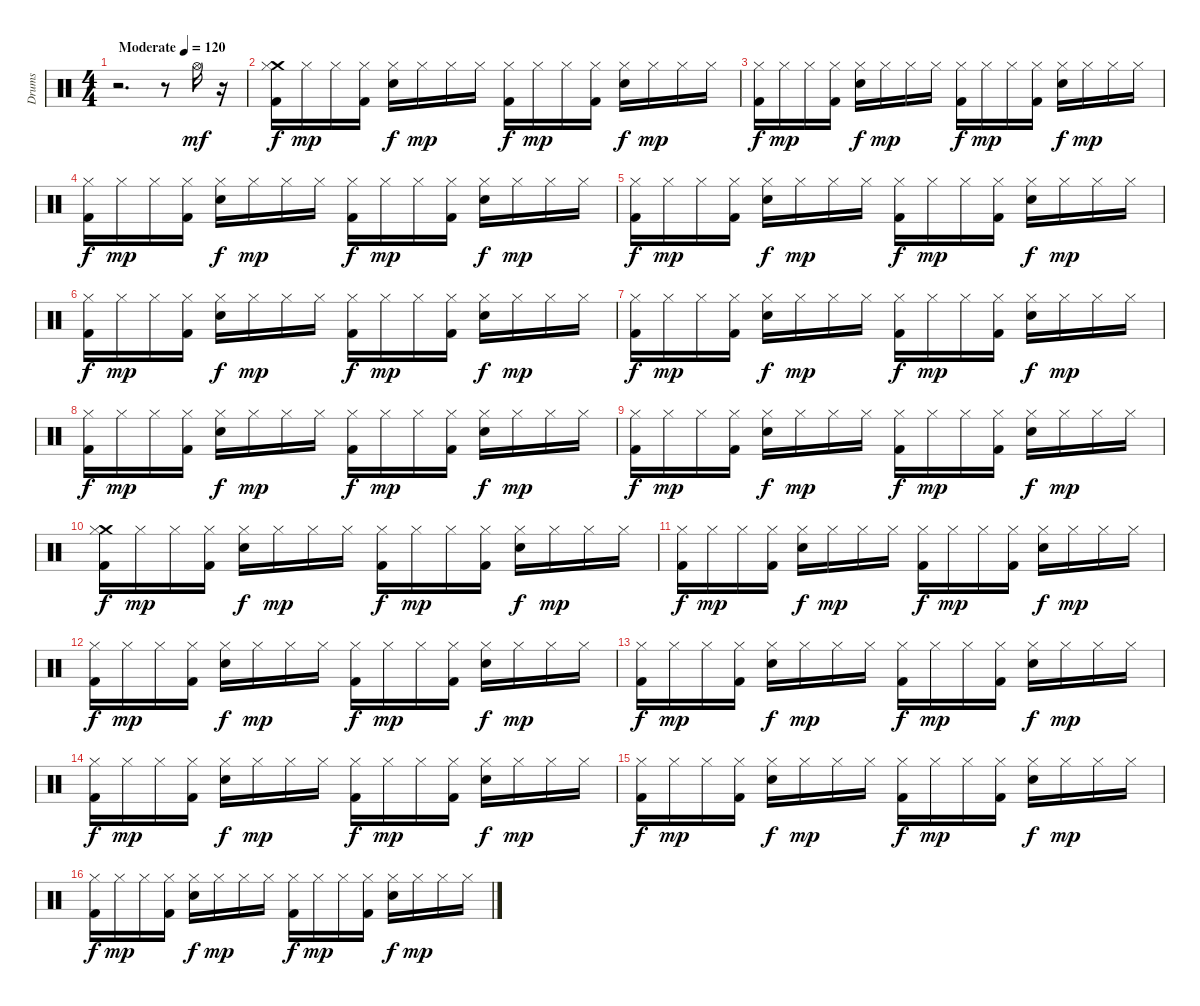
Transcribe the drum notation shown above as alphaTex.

\track ("Drums" "Drums") {instrument percussion}
\staff {score}
\articulation defaults
\ts (4 4)
\tempo (120 "Moderate")
\clef neutral
\ks c
r.2{d dy mf} r.8 "Hi-Hat (open)".16 r.16 |
("Kick (hit) 2" "Crash medium (hit)" "Hi-Hat (closed)").16{dy f} "Hi-Hat (closed)".16{dy mp} "Hi-Hat (closed)".16 ("Kick (hit) 2" "Hi-Hat (closed)").16 ("Snare (hit) 2" "Hi-Hat (closed)").16{dy f} "Hi-Hat (closed)".16{dy mp} "Hi-Hat (closed)".16 "Hi-Hat (closed)".16 ("Kick (hit) 2" "Hi-Hat (closed)").16{dy f} "Hi-Hat (closed)".16{dy mp} "Hi-Hat (closed)".16 ("Kick (hit) 2" "Hi-Hat (closed)").16 ("Snare (hit) 2" "Hi-Hat (closed)").16{dy f} "Hi-Hat (closed)".16{dy mp} "Hi-Hat (closed)".16 "Hi-Hat (closed)".16 |
("Kick (hit) 2" "Hi-Hat (closed)").16{dy f} "Hi-Hat (closed)".16{dy mp} "Hi-Hat (closed)".16 ("Kick (hit) 2" "Hi-Hat (closed)").16 ("Snare (hit) 2" "Hi-Hat (closed)").16{dy f} "Hi-Hat (closed)".16{dy mp} "Hi-Hat (closed)".16 "Hi-Hat (closed)".16 ("Kick (hit) 2" "Hi-Hat (closed)").16{dy f} "Hi-Hat (closed)".16{dy mp} "Hi-Hat (closed)".16 ("Kick (hit) 2" "Hi-Hat (closed)").16 ("Snare (hit) 2" "Hi-Hat (closed)").16{dy f} "Hi-Hat (closed)".16{dy mp} "Hi-Hat (closed)".16 "Hi-Hat (closed)".16 |
("Kick (hit) 2" "Hi-Hat (closed)").16{dy f} "Hi-Hat (closed)".16{dy mp} "Hi-Hat (closed)".16 ("Kick (hit) 2" "Hi-Hat (closed)").16 ("Snare (hit) 2" "Hi-Hat (closed)").16{dy f} "Hi-Hat (closed)".16{dy mp} "Hi-Hat (closed)".16 "Hi-Hat (closed)".16 ("Kick (hit) 2" "Hi-Hat (closed)").16{dy f} "Hi-Hat (closed)".16{dy mp} "Hi-Hat (closed)".16 ("Kick (hit) 2" "Hi-Hat (closed)").16 ("Snare (hit) 2" "Hi-Hat (closed)").16{dy f} "Hi-Hat (closed)".16{dy mp} "Hi-Hat (closed)".16 "Hi-Hat (closed)".16 |
("Kick (hit) 2" "Hi-Hat (closed)").16{dy f} "Hi-Hat (closed)".16{dy mp} "Hi-Hat (closed)".16 ("Kick (hit) 2" "Hi-Hat (closed)").16 ("Snare (hit) 2" "Hi-Hat (closed)").16{dy f} "Hi-Hat (closed)".16{dy mp} "Hi-Hat (closed)".16 "Hi-Hat (closed)".16 ("Kick (hit) 2" "Hi-Hat (closed)").16{dy f} "Hi-Hat (closed)".16{dy mp} "Hi-Hat (closed)".16 ("Kick (hit) 2" "Hi-Hat (closed)").16 ("Snare (hit) 2" "Hi-Hat (closed)").16{dy f} "Hi-Hat (closed)".16{dy mp} "Hi-Hat (closed)".16 "Hi-Hat (closed)".16 |
("Kick (hit) 2" "Hi-Hat (closed)").16{dy f} "Hi-Hat (closed)".16{dy mp} "Hi-Hat (closed)".16 ("Kick (hit) 2" "Hi-Hat (closed)").16 ("Snare (hit) 2" "Hi-Hat (closed)").16{dy f} "Hi-Hat (closed)".16{dy mp} "Hi-Hat (closed)".16 "Hi-Hat (closed)".16 ("Kick (hit) 2" "Hi-Hat (closed)").16{dy f} "Hi-Hat (closed)".16{dy mp} "Hi-Hat (closed)".16 ("Kick (hit) 2" "Hi-Hat (closed)").16 ("Snare (hit) 2" "Hi-Hat (closed)").16{dy f} "Hi-Hat (closed)".16{dy mp} "Hi-Hat (closed)".16 "Hi-Hat (closed)".16 |
("Kick (hit) 2" "Hi-Hat (closed)").16{dy f} "Hi-Hat (closed)".16{dy mp} "Hi-Hat (closed)".16 ("Kick (hit) 2" "Hi-Hat (closed)").16 ("Snare (hit) 2" "Hi-Hat (closed)").16{dy f} "Hi-Hat (closed)".16{dy mp} "Hi-Hat (closed)".16 "Hi-Hat (closed)".16 ("Kick (hit) 2" "Hi-Hat (closed)").16{dy f} "Hi-Hat (closed)".16{dy mp} "Hi-Hat (closed)".16 ("Kick (hit) 2" "Hi-Hat (closed)").16 ("Snare (hit) 2" "Hi-Hat (closed)").16{dy f} "Hi-Hat (closed)".16{dy mp} "Hi-Hat (closed)".16 "Hi-Hat (closed)".16 |
("Kick (hit) 2" "Hi-Hat (closed)").16{dy f} "Hi-Hat (closed)".16{dy mp} "Hi-Hat (closed)".16 ("Kick (hit) 2" "Hi-Hat (closed)").16 ("Snare (hit) 2" "Hi-Hat (closed)").16{dy f} "Hi-Hat (closed)".16{dy mp} "Hi-Hat (closed)".16 "Hi-Hat (closed)".16 ("Kick (hit) 2" "Hi-Hat (closed)").16{dy f} "Hi-Hat (closed)".16{dy mp} "Hi-Hat (closed)".16 ("Kick (hit) 2" "Hi-Hat (closed)").16 ("Snare (hit) 2" "Hi-Hat (closed)").16{dy f} "Hi-Hat (closed)".16{dy mp} "Hi-Hat (closed)".16 "Hi-Hat (closed)".16 |
("Kick (hit) 2" "Hi-Hat (closed)").16{dy f} "Hi-Hat (closed)".16{dy mp} "Hi-Hat (closed)".16 ("Kick (hit) 2" "Hi-Hat (closed)").16 ("Snare (hit) 2" "Hi-Hat (closed)").16{dy f} "Hi-Hat (closed)".16{dy mp} "Hi-Hat (closed)".16 "Hi-Hat (closed)".16 ("Kick (hit) 2" "Hi-Hat (closed)").16{dy f} "Hi-Hat (closed)".16{dy mp} "Hi-Hat (closed)".16 ("Kick (hit) 2" "Hi-Hat (closed)").16 ("Snare (hit) 2" "Hi-Hat (closed)").16{dy f} "Hi-Hat (closed)".16{dy mp} "Hi-Hat (closed)".16 "Hi-Hat (closed)".16 |
("Kick (hit) 2" "Crash medium (hit)" "Hi-Hat (closed)").16{dy f} "Hi-Hat (closed)".16{dy mp} "Hi-Hat (closed)".16 ("Kick (hit) 2" "Hi-Hat (closed)").16 ("Snare (hit) 2" "Hi-Hat (closed)").16{dy f} "Hi-Hat (closed)".16{dy mp} "Hi-Hat (closed)".16 "Hi-Hat (closed)".16 ("Kick (hit) 2" "Hi-Hat (closed)").16{dy f} "Hi-Hat (closed)".16{dy mp} "Hi-Hat (closed)".16 ("Kick (hit) 2" "Hi-Hat (closed)").16 ("Snare (hit) 2" "Hi-Hat (closed)").16{dy f} "Hi-Hat (closed)".16{dy mp} "Hi-Hat (closed)".16 "Hi-Hat (closed)".16 |
("Kick (hit) 2" "Hi-Hat (closed)").16{dy f} "Hi-Hat (closed)".16{dy mp} "Hi-Hat (closed)".16 ("Kick (hit) 2" "Hi-Hat (closed)").16 ("Snare (hit) 2" "Hi-Hat (closed)").16{dy f} "Hi-Hat (closed)".16{dy mp} "Hi-Hat (closed)".16 "Hi-Hat (closed)".16 ("Kick (hit) 2" "Hi-Hat (closed)").16{dy f} "Hi-Hat (closed)".16{dy mp} "Hi-Hat (closed)".16 ("Kick (hit) 2" "Hi-Hat (closed)").16 ("Snare (hit) 2" "Hi-Hat (closed)").16{dy f} "Hi-Hat (closed)".16{dy mp} "Hi-Hat (closed)".16 "Hi-Hat (closed)".16 |
("Kick (hit) 2" "Hi-Hat (closed)").16{dy f} "Hi-Hat (closed)".16{dy mp} "Hi-Hat (closed)".16 ("Kick (hit) 2" "Hi-Hat (closed)").16 ("Snare (hit) 2" "Hi-Hat (closed)").16{dy f} "Hi-Hat (closed)".16{dy mp} "Hi-Hat (closed)".16 "Hi-Hat (closed)".16 ("Kick (hit) 2" "Hi-Hat (closed)").16{dy f} "Hi-Hat (closed)".16{dy mp} "Hi-Hat (closed)".16 ("Kick (hit) 2" "Hi-Hat (closed)").16 ("Snare (hit) 2" "Hi-Hat (closed)").16{dy f} "Hi-Hat (closed)".16{dy mp} "Hi-Hat (closed)".16 "Hi-Hat (closed)".16 |
("Kick (hit) 2" "Hi-Hat (closed)").16{dy f} "Hi-Hat (closed)".16{dy mp} "Hi-Hat (closed)".16 ("Kick (hit) 2" "Hi-Hat (closed)").16 ("Snare (hit) 2" "Hi-Hat (closed)").16{dy f} "Hi-Hat (closed)".16{dy mp} "Hi-Hat (closed)".16 "Hi-Hat (closed)".16 ("Kick (hit) 2" "Hi-Hat (closed)").16{dy f} "Hi-Hat (closed)".16{dy mp} "Hi-Hat (closed)".16 ("Kick (hit) 2" "Hi-Hat (closed)").16 ("Snare (hit) 2" "Hi-Hat (closed)").16{dy f} "Hi-Hat (closed)".16{dy mp} "Hi-Hat (closed)".16 "Hi-Hat (closed)".16 |
("Kick (hit) 2" "Hi-Hat (closed)").16{dy f} "Hi-Hat (closed)".16{dy mp} "Hi-Hat (closed)".16 ("Kick (hit) 2" "Hi-Hat (closed)").16 ("Snare (hit) 2" "Hi-Hat (closed)").16{dy f} "Hi-Hat (closed)".16{dy mp} "Hi-Hat (closed)".16 "Hi-Hat (closed)".16 ("Kick (hit) 2" "Hi-Hat (closed)").16{dy f} "Hi-Hat (closed)".16{dy mp} "Hi-Hat (closed)".16 ("Kick (hit) 2" "Hi-Hat (closed)").16 ("Snare (hit) 2" "Hi-Hat (closed)").16{dy f} "Hi-Hat (closed)".16{dy mp} "Hi-Hat (closed)".16 "Hi-Hat (closed)".16 |
("Kick (hit) 2" "Hi-Hat (closed)").16{dy f} "Hi-Hat (closed)".16{dy mp} "Hi-Hat (closed)".16 ("Kick (hit) 2" "Hi-Hat (closed)").16 ("Snare (hit) 2" "Hi-Hat (closed)").16{dy f} "Hi-Hat (closed)".16{dy mp} "Hi-Hat (closed)".16 "Hi-Hat (closed)".16 ("Kick (hit) 2" "Hi-Hat (closed)").16{dy f} "Hi-Hat (closed)".16{dy mp} "Hi-Hat (closed)".16 ("Kick (hit) 2" "Hi-Hat (closed)").16 ("Snare (hit) 2" "Hi-Hat (closed)").16{dy f} "Hi-Hat (closed)".16{dy mp} "Hi-Hat (closed)".16 "Hi-Hat (closed)".16 |
("Kick (hit) 2" "Hi-Hat (closed)").16{dy f} "Hi-Hat (closed)".16{dy mp} "Hi-Hat (closed)".16 ("Kick (hit) 2" "Hi-Hat (closed)").16 ("Snare (hit) 2" "Hi-Hat (closed)").16{dy f} "Hi-Hat (closed)".16{dy mp} "Hi-Hat (closed)".16 "Hi-Hat (closed)".16 ("Kick (hit) 2" "Hi-Hat (closed)").16{dy f} "Hi-Hat (closed)".16{dy mp} "Hi-Hat (closed)".16 ("Kick (hit) 2" "Hi-Hat (closed)").16 ("Snare (hit) 2" "Hi-Hat (closed)").16{dy f} "Hi-Hat (closed)".16{dy mp} "Hi-Hat (closed)".16 "Hi-Hat (closed)".16
